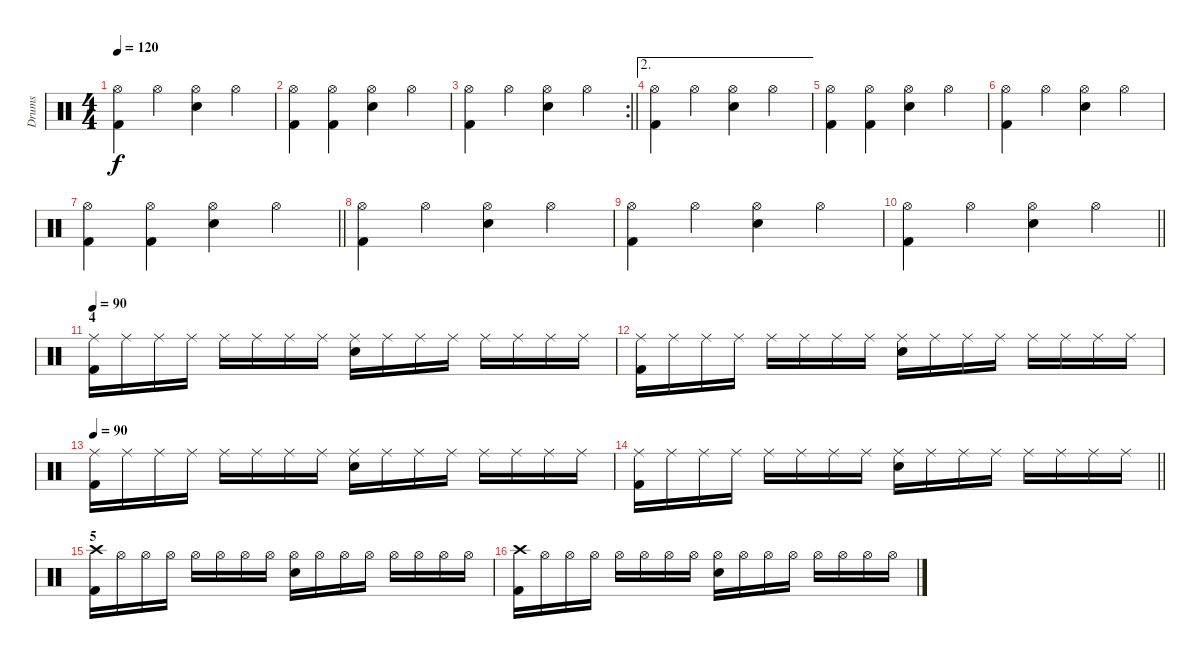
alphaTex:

\track ("Drums" "Drums") {instrument percussion}
\staff {score}
\articulation defaults
\ts (4 4)
\tempo 120
\clef neutral
\ks c
("Hi-Hat (open)" "Kick (hit) 2").4{dy f} "Hi-Hat (open)".4 ("Hi-Hat (open)" "Snare (hit) 2").4 "Hi-Hat (open)".4 |
("Hi-Hat (open)" "Kick (hit) 2").4 ("Hi-Hat (open)" "Kick (hit) 2").4 ("Hi-Hat (open)" "Snare (hit) 2").4 "Hi-Hat (open)".4 |
\rc 2
\barLineRight lightlight
("Hi-Hat (open)" "Kick (hit) 2").4 "Hi-Hat (open)".4 ("Hi-Hat (open)" "Snare (hit) 2").4 "Hi-Hat (open)".4 |
\ae 2
("Hi-Hat (open)" "Kick (hit) 2").4 "Hi-Hat (open)".4 ("Hi-Hat (open)" "Snare (hit) 2").4 "Hi-Hat (open)".4 |
("Hi-Hat (open)" "Kick (hit) 2").4 ("Hi-Hat (open)" "Kick (hit) 2").4 ("Hi-Hat (open)" "Snare (hit) 2").4 "Hi-Hat (open)".4 |
("Hi-Hat (open)" "Kick (hit) 2").4 "Hi-Hat (open)".4 ("Hi-Hat (open)" "Snare (hit) 2").4 "Hi-Hat (open)".4 |
\barLineRight lightlight
("Hi-Hat (open)" "Kick (hit) 2").4 ("Hi-Hat (open)" "Kick (hit) 2").4 ("Hi-Hat (open)" "Snare (hit) 2").4 "Hi-Hat (open)".4 |
("Hi-Hat (open)" "Kick (hit) 2").4 "Hi-Hat (open)".4 ("Hi-Hat (open)" "Snare (hit) 2").4 "Hi-Hat (open)".4 |
("Hi-Hat (open)" "Kick (hit) 2").4 "Hi-Hat (open)".4 ("Hi-Hat (open)" "Snare (hit) 2").4 "Hi-Hat (open)".4 |
\barLineRight lightlight
("Hi-Hat (open)" "Kick (hit) 2").4 "Hi-Hat (open)".4 ("Hi-Hat (open)" "Snare (hit) 2").4 "Hi-Hat (open)".4 |
\section ("" "4")
\tempo 90
("Ride (middle)" "Kick (hit) 2").16 "Ride (middle)".16 "Ride (middle)".16 "Ride (middle)".16 "Ride (middle)".16 "Ride (middle)".16 "Ride (middle)".16 "Ride (middle)".16 ("Ride (middle)" "Snare (hit) 2").16 "Ride (middle)".16 "Ride (middle)".16 "Ride (middle)".16 "Ride (middle)".16 "Ride (middle)".16 "Ride (middle)".16 "Ride (middle)".16 |
("Ride (middle)" "Kick (hit) 2").16 "Ride (middle)".16 "Ride (middle)".16 "Ride (middle)".16 "Ride (middle)".16 "Ride (middle)".16 "Ride (middle)".16 "Ride (middle)".16 ("Ride (middle)" "Snare (hit) 2").16 "Ride (middle)".16 "Ride (middle)".16 "Ride (middle)".16 "Ride (middle)".16 "Ride (middle)".16 "Ride (middle)".16 "Ride (middle)".16 |
\tempo 90
("Ride (middle)" "Kick (hit) 2").16 "Ride (middle)".16 "Ride (middle)".16 "Ride (middle)".16 "Ride (middle)".16 "Ride (middle)".16 "Ride (middle)".16 "Ride (middle)".16 ("Ride (middle)" "Snare (hit) 2").16 "Ride (middle)".16 "Ride (middle)".16 "Ride (middle)".16 "Ride (middle)".16 "Ride (middle)".16 "Ride (middle)".16 "Ride (middle)".16 |
\barLineRight lightlight
("Ride (middle)" "Kick (hit) 2").16 "Ride (middle)".16 "Ride (middle)".16 "Ride (middle)".16 "Ride (middle)".16 "Ride (middle)".16 "Ride (middle)".16 "Ride (middle)".16 ("Ride (middle)" "Snare (hit) 2").16 "Ride (middle)".16 "Ride (middle)".16 "Ride (middle)".16 "Ride (middle)".16 "Ride (middle)".16 "Ride (middle)".16 "Ride (middle)".16 |
\section ("" "5")
("Crash high (hit)" "Kick (hit) 2").16 "Hi-Hat (open)".16 "Hi-Hat (open)".16 "Hi-Hat (open)".16 "Hi-Hat (open)".16 "Hi-Hat (open)".16 "Hi-Hat (open)".16 "Hi-Hat (open)".16 ("Hi-Hat (open)" "Snare (hit) 2").16 "Hi-Hat (open)".16 "Hi-Hat (open)".16 "Hi-Hat (open)".16 "Hi-Hat (open)".16 "Hi-Hat (open)".16 "Hi-Hat (open)".16 "Hi-Hat (open)".16 |
("Crash high (hit)" "Kick (hit) 2").16 "Hi-Hat (open)".16 "Hi-Hat (open)".16 "Hi-Hat (open)".16 "Hi-Hat (open)".16 "Hi-Hat (open)".16 "Hi-Hat (open)".16 "Hi-Hat (open)".16 ("Hi-Hat (open)" "Snare (hit) 2").16 "Hi-Hat (open)".16 "Hi-Hat (open)".16 "Hi-Hat (open)".16 "Hi-Hat (open)".16 "Hi-Hat (open)".16 "Hi-Hat (open)".16 "Hi-Hat (open)".16
